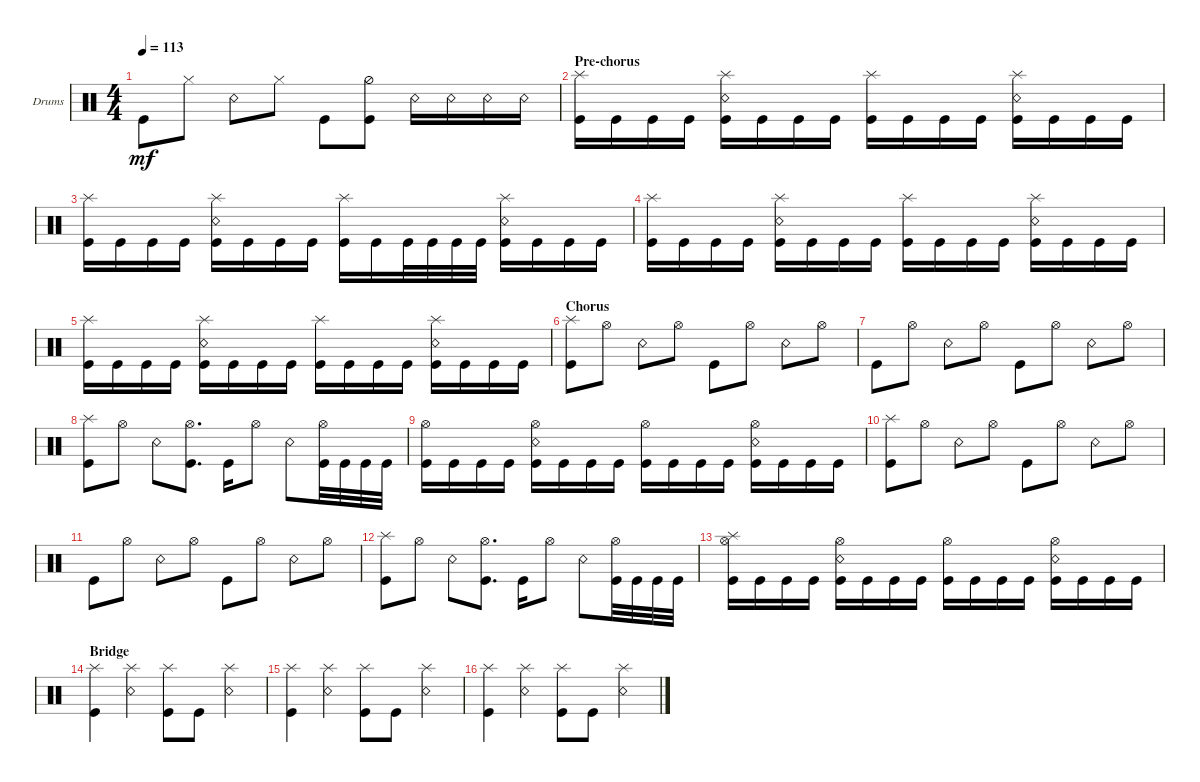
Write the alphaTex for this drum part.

\defaultSystemsLayout 4
\bracketExtendMode groupsimilarinstruments
\firstSystemTrackNameOrientation horizontal
\otherSystemsTrackNameOrientation horizontal
\track ("Drums" "Drums") {instrument percussion}
\staff {score}
\articulation defaults
\ts (4 4)
\tempo 113
\clef neutral
\ks c "Kick (hit)".8{dy mf} "Hi-Hat (closed)".8 "Snare (rim shot)".8 "Hi-Hat (closed)".8 "Kick (hit)".8
("Kick (hit)" "Hi-Hat (half)").8 "Snare (rim shot)".16 "Snare (rim shot)".16 "Snare (rim shot)".16 "Snare (rim shot)".16 |
\section ("" "Pre-chorus")
("Kick (hit)" "Splash (hit)").16 "Kick (hit)".16 "Kick (hit)".16 "Kick (hit)".16 ("Kick (hit)" "Snare (rim shot)" "Splash (hit)").16 "Kick (hit)".16 "Kick (hit)".16 "Kick (hit)".16 ("Kick (hit)" "Splash (hit)").16 "Kick (hit)".16 "Kick (hit)".16 "Kick (hit)".16 ("Kick (hit)" "Snare (rim shot)" "Splash (hit)").16 "Kick (hit)".16 "Kick (hit)".16 "Kick (hit)".16 |
("Kick (hit)" "Splash (hit)").16 "Kick (hit)".16 "Kick (hit)".16 "Kick (hit)".16 ("Kick (hit)" "Snare (rim shot)" "Splash (hit)").16 "Kick (hit)".16 "Kick (hit)".16 "Kick (hit)".16 ("Kick (hit)" "Splash (hit)").16 "Kick (hit)".16 "Kick (hit)".32 "Kick (hit)".32 "Kick (hit)".32 "Kick (hit)".32 ("Kick (hit)" "Snare (rim shot)" "Splash (hit)").16 "Kick (hit)".16 "Kick (hit)".16 "Kick (hit)".16 |
("Kick (hit)" "Splash (hit)").16 "Kick (hit)".16 "Kick (hit)".16 "Kick (hit)".16 ("Kick (hit)" "Snare (rim shot)" "Splash (hit)").16 "Kick (hit)".16 "Kick (hit)".16 "Kick (hit)".16 ("Kick (hit)" "Splash (hit)").16 "Kick (hit)".16 "Kick (hit)".16 "Kick (hit)".16 ("Kick (hit)" "Snare (rim shot)" "Splash (hit)").16 "Kick (hit)".16 "Kick (hit)".16 "Kick (hit)".16 |
("Kick (hit)" "Splash (hit)").16 "Kick (hit)".16 "Kick (hit)".16 "Kick (hit)".16 ("Kick (hit)" "Snare (rim shot)" "Splash (hit)").16 "Kick (hit)".16 "Kick (hit)".16 "Kick (hit)".16 ("Kick (hit)" "Splash (hit)").16 "Kick (hit)".16 "Kick (hit)".16 "Kick (hit)".16 ("Kick (hit)" "Snare (rim shot)" "Splash (hit)").16 "Kick (hit)".16 "Kick (hit)".16 "Kick (hit)".16 |
\section ("" "Chorus")
("Kick (hit)" "Splash (hit)").8 "Hi-Hat (open)".8 "Snare (rim shot)".8 "Hi-Hat (open)".8 "Kick (hit)".8 "Hi-Hat (open)".8 "Snare (rim shot)".8 "Hi-Hat (open)".8 |
"Kick (hit)".8 "Hi-Hat (open)".8 "Snare (rim shot)".8 "Hi-Hat (open)".8 "Kick (hit)".8 "Hi-Hat (open)".8 "Snare (rim shot)".8 "Hi-Hat (open)".8 |
("Kick (hit)" "Splash (hit)").8 "Hi-Hat (open)".8 "Snare (rim shot)".8 ("Kick (hit)" "Hi-Hat (open)").8{d} "Kick (hit)".16 "Hi-Hat (open)".8 "Snare (rim shot)".8 ("Kick (hit)" "Hi-Hat (open)").32 "Kick (hit)".32 "Kick (hit)".32 "Kick (hit)".32 |
("Kick (hit)" "Hi-Hat (open)").16 "Kick (hit)".16 "Kick (hit)".16 "Kick (hit)".16 ("Kick (hit)" "Hi-Hat (open)" "Snare (rim shot)").16 "Kick (hit)".16 "Kick (hit)".16 "Kick (hit)".16 ("Kick (hit)" "Hi-Hat (open)").16 "Kick (hit)".16 "Kick (hit)".16 "Kick (hit)".16 ("Kick (hit)" "Hi-Hat (open)" "Snare (rim shot)").16 "Kick (hit)".16 "Kick (hit)".16 "Kick (hit)".16 |
("Kick (hit)" "Splash (hit)").8 "Hi-Hat (open)".8 "Snare (rim shot)".8 "Hi-Hat (open)".8 "Kick (hit)".8 "Hi-Hat (open)".8 "Snare (rim shot)".8 "Hi-Hat (open)".8 |
"Kick (hit)".8 "Hi-Hat (open)".8 "Snare (rim shot)".8 "Hi-Hat (open)".8 "Kick (hit)".8 "Hi-Hat (open)".8 "Snare (rim shot)".8 "Hi-Hat (open)".8 |
("Kick (hit)" "Splash (hit)").8 "Hi-Hat (open)".8 "Snare (rim shot)".8 ("Kick (hit)" "Hi-Hat (open)").8{d} "Kick (hit)".16 "Hi-Hat (open)".8 "Snare (rim shot)".8 ("Kick (hit)" "Hi-Hat (open)").32 "Kick (hit)".32 "Kick (hit)".32 "Kick (hit)".32 |
("Kick (hit)" "Hi-Hat (open)" "Splash (hit)").16 "Kick (hit)".16 "Kick (hit)".16 "Kick (hit)".16 ("Kick (hit)" "Hi-Hat (open)" "Snare (rim shot)").16 "Kick (hit)".16 "Kick (hit)".16 "Kick (hit)".16 ("Kick (hit)" "Hi-Hat (open)").16 "Kick (hit)".16 "Kick (hit)".16 "Kick (hit)".16 ("Kick (hit)" "Hi-Hat (open)" "Snare (rim shot)").16 "Kick (hit)".16 "Kick (hit)".16 "Kick (hit)".16 |
\section ("" "Bridge")
("Splash (hit)" "Kick (hit)").4 ("Splash (hit)" "Snare (rim shot)").4 ("Splash (hit)" "Kick (hit)").8 "Kick (hit)".8 ("Splash (hit)" "Snare (rim shot)").4 |
("Splash (hit)" "Kick (hit)").4 ("Splash (hit)" "Snare (rim shot)").4 ("Splash (hit)" "Kick (hit)").8 "Kick (hit)".8 ("Splash (hit)" "Snare (rim shot)").4 |
("Splash (hit)" "Kick (hit)").4 ("Splash (hit)" "Snare (rim shot)").4 ("Splash (hit)" "Kick (hit)").8 "Kick (hit)".8 ("Splash (hit)" "Snare (rim shot)").4
